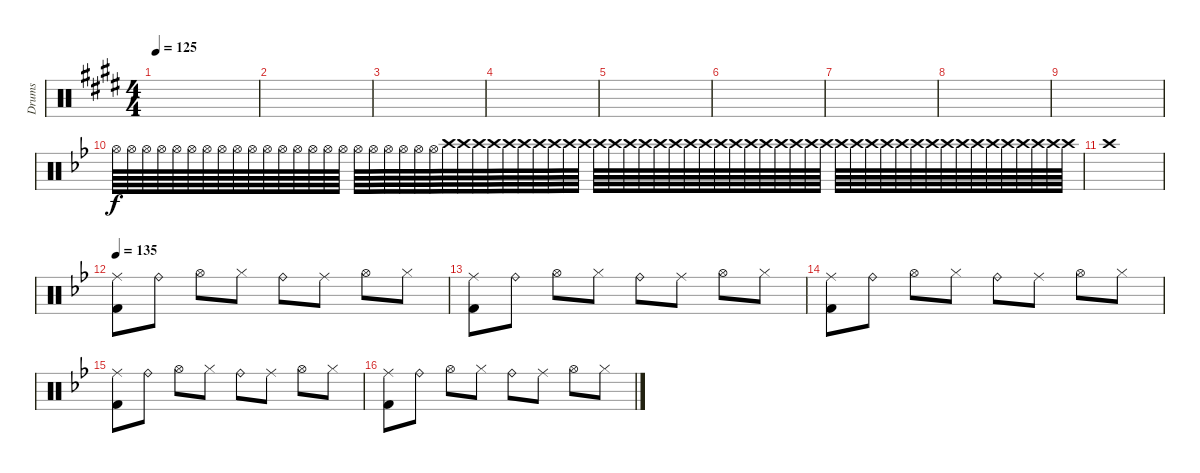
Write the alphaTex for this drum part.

\track ("Drums" "Drums") {instrument percussion}
\staff {score}
\articulation defaults
\ts (4 4)
\tempo 125
\clef neutral
\ks e
|
|
|
|
|
|
|
|
|
\ks bb "Hi-Hat (open)".64{volume 5} "Hi-Hat (open)".64 "Hi-Hat (open)".64 "Hi-Hat (open)".64 "Hi-Hat (open)".64 "Hi-Hat (open)".64 "Hi-Hat (open)".64 "Hi-Hat (open)".64 "Hi-Hat (open)".64{volume 8} "Hi-Hat (open)".64 "Hi-Hat (open)".64 "Hi-Hat (open)".64 "Hi-Hat (open)".64 "Hi-Hat (open)".64 "Hi-Hat (open)".64 "Hi-Hat (open)".64 "Hi-Hat (open)".64{volume 11} "Hi-Hat (open)".64 "Hi-Hat (open)".64 "Hi-Hat (open)".64 "Hi-Hat (open)".64 "Hi-Hat (open)".64 "Crash high (hit)".64{volume 13} "Crash high (hit)".64 "Crash high (hit)".64 "Crash high (hit)".64 "Crash high (hit)".64 "Crash high (hit)".64 "Crash high (hit)".64 "Crash high (hit)".64 "Crash high (hit)".64 "Crash high (hit)".64 "Crash high (hit)".64 "Crash high (hit)".64 "Crash high (hit)".64 "Crash high (hit)".64 "Crash high (hit)".64 "Crash high (hit)".64 "Crash high (hit)".64 "Crash high (hit)".64 "Crash high (hit)".64 "Crash high (hit)".64 "Crash high (hit)".64 "Crash high (hit)".64 "Crash high (hit)".64 "Crash high (hit)".64 "Crash high (hit)".64 "Crash high (hit)".64 "Crash high (hit)".64 "Crash high (hit)".64 "Crash high (hit)".64 "Crash high (hit)".64 "Crash high (hit)".64 "Crash high (hit)".64 "Crash high (hit)".64 "Crash high (hit)".64 "Crash high (hit)".64 "Crash high (hit)".64 "Crash high (hit)".64 "Crash high (hit)".64 "Crash high (hit)".64 "Crash high (hit)".64 "Crash high (hit)".64 "Crash high (hit)".64
|
"Crash high (hit)".1 |
\tempo 135
("Ride (middle)" "Kick (hit) 2").8 "Ride (bell)".8 "Hi-Hat (open)".8 "Hi-Hat (closed)".8 "Ride (bell)".8 "Ride (middle)".8 "Hi-Hat (open)".8 "Hi-Hat (closed)".8 |
("Ride (middle)" "Kick (hit) 2").8 "Ride (bell)".8 "Hi-Hat (open)".8 "Hi-Hat (closed)".8 "Ride (bell)".8 "Ride (middle)".8 "Hi-Hat (open)".8 "Hi-Hat (closed)".8 |
("Ride (middle)" "Kick (hit) 2").8 "Ride (bell)".8 "Hi-Hat (open)".8 "Hi-Hat (closed)".8 "Ride (bell)".8 "Ride (middle)".8 "Hi-Hat (open)".8 "Hi-Hat (closed)".8 |
("Ride (middle)" "Kick (hit) 2").8 "Ride (bell)".8 "Hi-Hat (open)".8 "Hi-Hat (closed)".8 "Ride (bell)".8 "Ride (middle)".8 "Hi-Hat (open)".8 "Hi-Hat (closed)".8 |
("Ride (middle)" "Kick (hit) 2").8 "Ride (bell)".8 "Hi-Hat (open)".8 "Hi-Hat (closed)".8 "Ride (bell)".8 "Ride (middle)".8 "Hi-Hat (open)".8 "Hi-Hat (closed)".8
